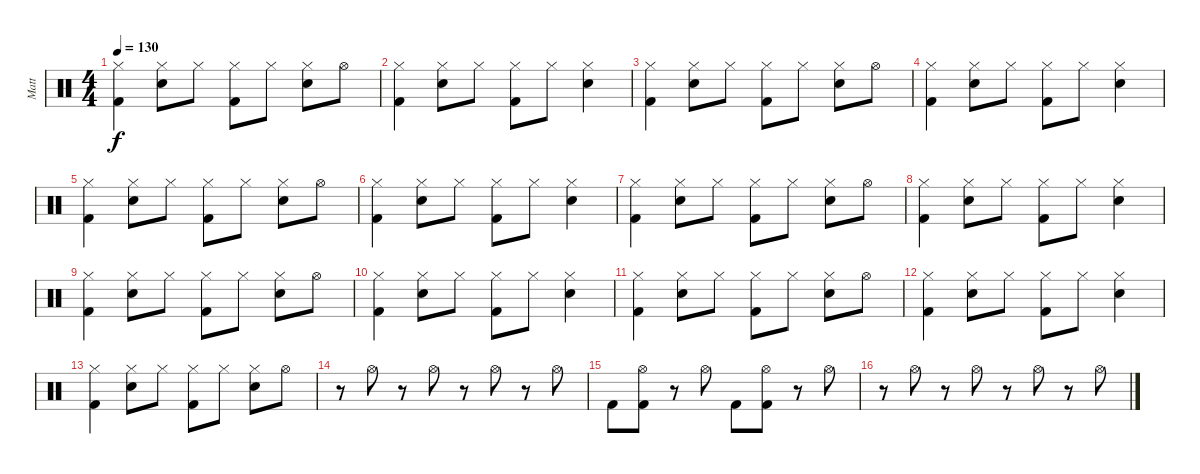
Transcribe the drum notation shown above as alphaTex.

\track ("Matt" "Matt") {instrument percussion}
\staff {score}
\articulation defaults
\ts (4 4)
\tempo 130
\clef neutral
\ks c
("Hi-Hat (closed)" "Kick (hit) 2").4{dy f} ("Hi-Hat (closed)" "Snare (hit) 2").8 "Hi-Hat (closed)".8 ("Hi-Hat (closed)" "Kick (hit) 2").8 "Hi-Hat (closed)".8 ("Hi-Hat (closed)" "Snare (hit) 2").8 "Hi-Hat (open)".8 |
("Hi-Hat (closed)" "Kick (hit) 2").4 ("Hi-Hat (closed)" "Snare (hit) 2").8 "Hi-Hat (closed)".8 ("Hi-Hat (closed)" "Kick (hit) 2").8 "Hi-Hat (closed)".8 ("Hi-Hat (closed)" "Snare (hit) 2").4 |
("Hi-Hat (closed)" "Kick (hit) 2").4 ("Hi-Hat (closed)" "Snare (hit) 2").8 "Hi-Hat (closed)".8 ("Hi-Hat (closed)" "Kick (hit) 2").8 "Hi-Hat (closed)".8 ("Hi-Hat (closed)" "Snare (hit) 2").8 "Hi-Hat (open)".8 |
("Hi-Hat (closed)" "Kick (hit) 2").4 ("Hi-Hat (closed)" "Snare (hit) 2").8 "Hi-Hat (closed)".8 ("Hi-Hat (closed)" "Kick (hit) 2").8 "Hi-Hat (closed)".8 ("Hi-Hat (closed)" "Snare (hit) 2").4 |
("Hi-Hat (closed)" "Kick (hit) 2").4 ("Hi-Hat (closed)" "Snare (hit) 2").8 "Hi-Hat (closed)".8 ("Hi-Hat (closed)" "Kick (hit) 2").8 "Hi-Hat (closed)".8 ("Hi-Hat (closed)" "Snare (hit) 2").8 "Hi-Hat (open)".8 |
("Hi-Hat (closed)" "Kick (hit) 2").4 ("Hi-Hat (closed)" "Snare (hit) 2").8 "Hi-Hat (closed)".8 ("Hi-Hat (closed)" "Kick (hit) 2").8 "Hi-Hat (closed)".8 ("Hi-Hat (closed)" "Snare (hit) 2").4 |
("Hi-Hat (closed)" "Kick (hit) 2").4 ("Hi-Hat (closed)" "Snare (hit) 2").8 "Hi-Hat (closed)".8 ("Hi-Hat (closed)" "Kick (hit) 2").8 "Hi-Hat (closed)".8 ("Hi-Hat (closed)" "Snare (hit) 2").8 "Hi-Hat (open)".8 |
("Hi-Hat (closed)" "Kick (hit) 2").4 ("Hi-Hat (closed)" "Snare (hit) 2").8 "Hi-Hat (closed)".8 ("Hi-Hat (closed)" "Kick (hit) 2").8 "Hi-Hat (closed)".8 ("Hi-Hat (closed)" "Snare (hit) 2").4 |
("Hi-Hat (closed)" "Kick (hit) 2").4 ("Hi-Hat (closed)" "Snare (hit) 2").8 "Hi-Hat (closed)".8 ("Hi-Hat (closed)" "Kick (hit) 2").8 "Hi-Hat (closed)".8 ("Hi-Hat (closed)" "Snare (hit) 2").8 "Hi-Hat (open)".8 |
("Hi-Hat (closed)" "Kick (hit) 2").4 ("Hi-Hat (closed)" "Snare (hit) 2").8 "Hi-Hat (closed)".8 ("Hi-Hat (closed)" "Kick (hit) 2").8 "Hi-Hat (closed)".8 ("Hi-Hat (closed)" "Snare (hit) 2").4 |
("Hi-Hat (closed)" "Kick (hit) 2").4 ("Hi-Hat (closed)" "Snare (hit) 2").8 "Hi-Hat (closed)".8 ("Hi-Hat (closed)" "Kick (hit) 2").8 "Hi-Hat (closed)".8 ("Hi-Hat (closed)" "Snare (hit) 2").8 "Hi-Hat (open)".8 |
("Hi-Hat (closed)" "Kick (hit) 2").4 ("Hi-Hat (closed)" "Snare (hit) 2").8 "Hi-Hat (closed)".8 ("Hi-Hat (closed)" "Kick (hit) 2").8 "Hi-Hat (closed)".8 ("Hi-Hat (closed)" "Snare (hit) 2").4 |
("Hi-Hat (closed)" "Kick (hit) 2").4 ("Hi-Hat (closed)" "Snare (hit) 2").8 "Hi-Hat (closed)".8 ("Hi-Hat (closed)" "Kick (hit) 2").8 "Hi-Hat (closed)".8 ("Hi-Hat (closed)" "Snare (hit) 2").8 "Hi-Hat (open)".8 |
r.8 "Hi-Hat (open)".8 r.8 "Hi-Hat (open)".8 r.8 "Hi-Hat (open)".8 r.8 "Hi-Hat (open)".8 |
"Kick (hit) 2".8 ("Hi-Hat (open)" "Kick (hit) 2").8 r.8 "Hi-Hat (open)".8 "Kick (hit) 2".8 ("Hi-Hat (open)" "Kick (hit) 2").8 r.8 "Hi-Hat (open)".8 |
r.8 "Hi-Hat (open)".8 r.8 "Hi-Hat (open)".8 r.8 "Hi-Hat (open)".8 r.8 "Hi-Hat (open)".8
